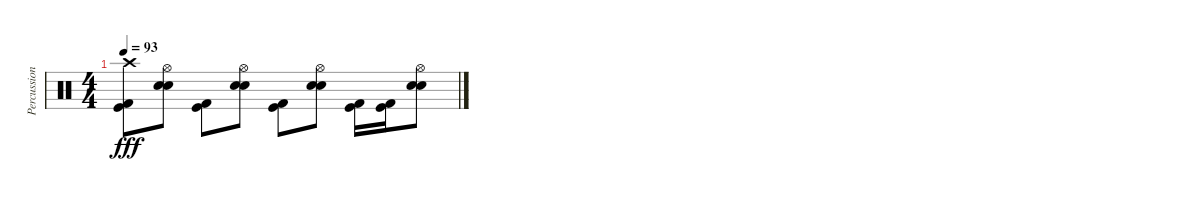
\track ("Percussion" "Percussion") {instrument percussion}
\staff {score}
\articulation defaults
\ts (4 4)
\tempo 93
\clef neutral
\ks c
("Crash high (hit)" "Kick (hit)" "Kick (hit) 2").8{dy fff} ("Hi-Hat (open)" "Electric Snare (hit)" "Snare (hit) 2").8 ("Kick (hit)" "Kick (hit) 2").8 ("Hi-Hat (open)" "Electric Snare (hit)" "Snare (hit) 2").8 ("Kick (hit)" "Kick (hit) 2").8 ("Hi-Hat (open)" "Electric Snare (hit)" "Snare (hit) 2").8 ("Kick (hit)" "Kick (hit) 2").16 ("Kick (hit)" "Kick (hit) 2").16 ("Hi-Hat (open)" "Electric Snare (hit)" "Snare (hit) 2").8
